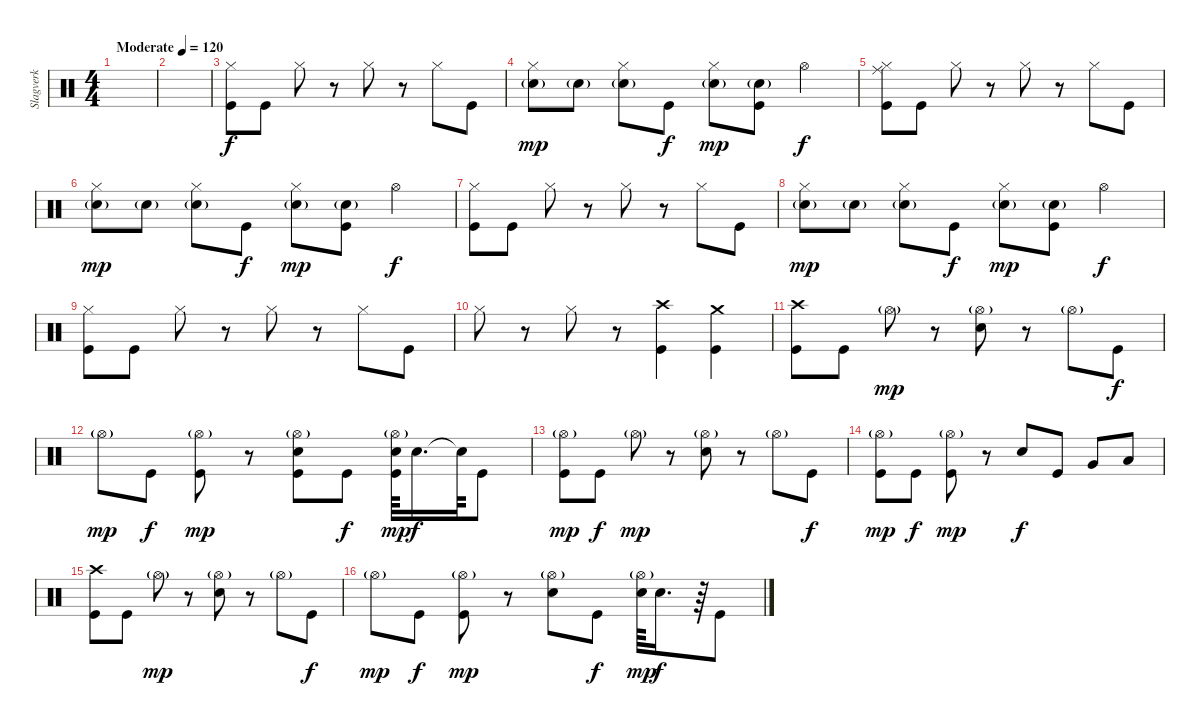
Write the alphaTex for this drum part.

\track ("Slagverk" "Slagverk") {instrument percussion}
\staff {score}
\articulation defaults
\ts (4 4)
\tempo (120 "Moderate")
\clef neutral
\ks c
|
|
("Hi-Hat (closed)" "Kick (hit)").8 "Kick (hit)".8 "Hi-Hat (closed)".8 r.8 "Hi-Hat (closed)".8 r.8 "Hi-Hat (closed)".8 "Kick (hit)".8 |
("Electric Snare (hit)"{g} "Hi-Hat (closed)").8{dy mp} "Electric Snare (hit)"{g}.8 ("Electric Snare (hit)"{g} "Hi-Hat (closed)").8 "Kick (hit)".8{dy f} ("Electric Snare (hit)"{g} "Hi-Hat (closed)").8{dy mp} ("Electric Snare (hit)"{g} "Kick (hit)").8 "Hi-Hat (open)".4{dy f} |
("Ride (middle)" "Hi-Hat (closed)" "Kick (hit)").8 "Kick (hit)".8 "Hi-Hat (closed)".8 r.8 "Hi-Hat (closed)".8 r.8 "Hi-Hat (closed)".8 "Kick (hit)".8 |
("Electric Snare (hit)"{g} "Hi-Hat (closed)").8{dy mp} "Electric Snare (hit)"{g}.8 ("Electric Snare (hit)"{g} "Hi-Hat (closed)").8 "Kick (hit)".8{dy f} ("Electric Snare (hit)"{g} "Hi-Hat (closed)").8{dy mp} ("Electric Snare (hit)"{g} "Kick (hit)").8 "Hi-Hat (open)".4{dy f} |
("Hi-Hat (closed)" "Kick (hit)").8 "Kick (hit)".8 "Hi-Hat (closed)".8 r.8 "Hi-Hat (closed)".8 r.8 "Hi-Hat (closed)".8 "Kick (hit)".8 |
("Electric Snare (hit)"{g} "Hi-Hat (closed)").8{dy mp} "Electric Snare (hit)"{g}.8 ("Electric Snare (hit)"{g} "Hi-Hat (closed)").8 "Kick (hit)".8{dy f} ("Electric Snare (hit)"{g} "Hi-Hat (closed)").8{dy mp} ("Electric Snare (hit)"{g} "Kick (hit)").8 "Hi-Hat (open)".4{dy f} |
("Hi-Hat (closed)" "Kick (hit)").8 "Kick (hit)".8 "Hi-Hat (closed)".8 r.8 "Hi-Hat (closed)".8 r.8 "Hi-Hat (closed)".8 "Kick (hit)".8 |
"Hi-Hat (closed)".8 r.8 "Hi-Hat (closed)".8 r.8 ("Crash high (hit)" "Kick (hit)").4 ("Crash medium (hit)" "Kick (hit)").4 |
("Crash high (hit)" "Kick (hit)").8 "Kick (hit)".8 "Hi-Hat (open)"{g}.8{dy mp} r.8 ("Hi-Hat (open)"{g} "Electric Snare (hit)").8 r.8 "Hi-Hat (open)"{g}.8 "Kick (hit)".8{dy f} |
"Hi-Hat (open)"{g}.8{dy mp} "Kick (hit)".8{dy f} ("Hi-Hat (open)"{g} "Kick (hit)").8{dy mp} r.8 ("Kick (hit)" "Hi-Hat (open)"{g} "Electric Snare (hit)").8 "Kick (hit)".8{dy f} ("Kick (hit)" "Hi-Hat (open)"{g} "Electric Snare (hit)").64{dy mp} "Electric Snare (hit)".16{d dy f} "Electric Snare (hit)"{t}.64 "Kick (hit)".8 |
("Hi-Hat (open)"{g} "Kick (hit)").8{dy mp} "Kick (hit)".8{dy f} "Hi-Hat (open)"{g}.8{dy mp} r.8 ("Hi-Hat (open)"{g} "Electric Snare (hit)").8 r.8 "Hi-Hat (open)"{g}.8 "Kick (hit)".8{dy f} |
("Hi-Hat (open)"{g} "Kick (hit)").8{dy mp} "Kick (hit)".8{dy f} ("Hi-Hat (open)"{g} "Kick (hit)").8{dy mp} r.8 "Electric Snare (hit)".8{dy f} "Kick (hit)".8 "Very Low Tom (hit)".8 "Low Floor Tom (hit)".8 |
("Crash high (hit)" "Kick (hit)").8 "Kick (hit)".8 "Hi-Hat (open)"{g}.8{dy mp} r.8 ("Hi-Hat (open)"{g} "Electric Snare (hit)").8 r.8 "Hi-Hat (open)"{g}.8 "Kick (hit)".8{dy f} |
"Hi-Hat (open)"{g}.8{dy mp} "Kick (hit)".8{dy f} ("Hi-Hat (open)"{g} "Kick (hit)").8{dy mp} r.8 ("Hi-Hat (open)"{g} "Electric Snare (hit)").8 "Kick (hit)".8{dy f} ("Hi-Hat (open)"{g} "Electric Snare (hit)").64{dy mp} "Electric Snare (hit)".16{d dy f} r.64 "Kick (hit)".8
